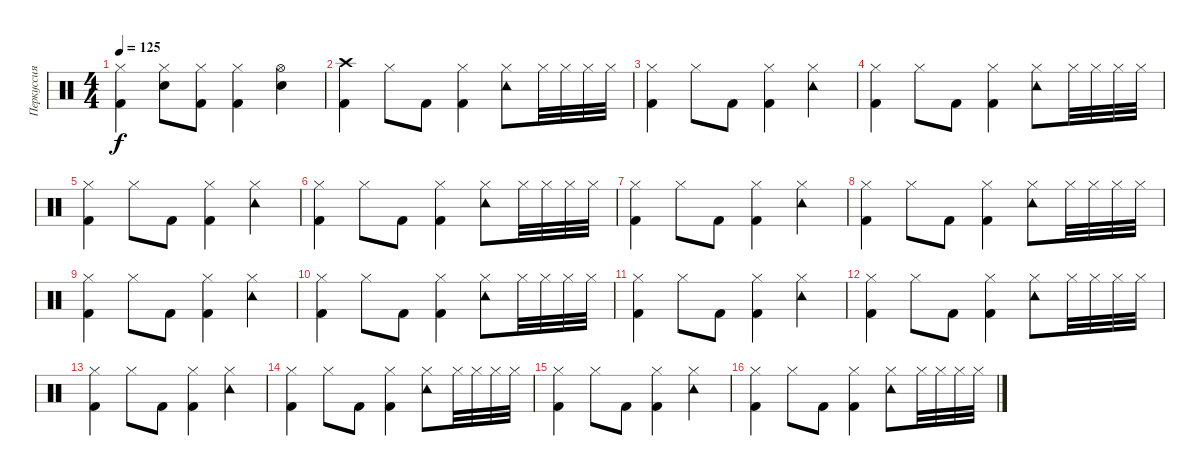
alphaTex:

\track ("Перкуссия" "Перкуссия") {instrument percussion}
\staff {score}
\articulation defaults
\ts (4 4)
\tempo 125
\clef neutral
\ks c
("Hi-Hat (closed)" "Kick (hit) 2").4{dy f} ("Hi-Hat (closed)" "Snare (hit) 2").8 ("Hi-Hat (closed)" "Kick (hit) 2").8 ("Hi-Hat (closed)" "Kick (hit) 2").4 ("Hi-Hat (open)" "Snare (hit) 2").4 |
("Crash high (hit)" "Kick (hit) 2").4 "Hi-Hat (closed)".8 "Kick (hit) 2".8 ("Hi-Hat (closed)" "Kick (hit) 2").4 ("Hi-Hat (closed)" "Tambourine (hit)").8 "Hi-Hat (closed)".32 "Hi-Hat (closed)".32 "Hi-Hat (closed)".32 "Hi-Hat (closed)".32 |
("Hi-Hat (closed)" "Kick (hit) 2").4 "Hi-Hat (closed)".8 "Kick (hit) 2".8 ("Hi-Hat (closed)" "Kick (hit) 2").4 ("Hi-Hat (closed)" "Tambourine (hit)").4 |
("Hi-Hat (closed)" "Kick (hit) 2").4 "Hi-Hat (closed)".8 "Kick (hit) 2".8 ("Hi-Hat (closed)" "Kick (hit) 2").4 ("Hi-Hat (closed)" "Tambourine (hit)").8 "Hi-Hat (closed)".32 "Hi-Hat (closed)".32 "Hi-Hat (closed)".32 "Hi-Hat (closed)".32 |
("Hi-Hat (closed)" "Kick (hit) 2").4 "Hi-Hat (closed)".8 "Kick (hit) 2".8 ("Hi-Hat (closed)" "Kick (hit) 2").4 ("Hi-Hat (closed)" "Tambourine (hit)").4 |
("Hi-Hat (closed)" "Kick (hit) 2").4 "Hi-Hat (closed)".8 "Kick (hit) 2".8 ("Hi-Hat (closed)" "Kick (hit) 2").4 ("Hi-Hat (closed)" "Tambourine (hit)").8 "Hi-Hat (closed)".32 "Hi-Hat (closed)".32 "Hi-Hat (closed)".32 "Hi-Hat (closed)".32 |
("Hi-Hat (closed)" "Kick (hit) 2").4 "Hi-Hat (closed)".8 "Kick (hit) 2".8 ("Hi-Hat (closed)" "Kick (hit) 2").4 ("Hi-Hat (closed)" "Tambourine (hit)").4 |
("Hi-Hat (closed)" "Kick (hit) 2").4 "Hi-Hat (closed)".8 "Kick (hit) 2".8 ("Hi-Hat (closed)" "Kick (hit) 2").4 ("Hi-Hat (closed)" "Tambourine (hit)").8 "Hi-Hat (closed)".32 "Hi-Hat (closed)".32 "Hi-Hat (closed)".32 "Hi-Hat (closed)".32 |
("Hi-Hat (closed)" "Kick (hit) 2").4 "Hi-Hat (closed)".8 "Kick (hit) 2".8 ("Hi-Hat (closed)" "Kick (hit) 2").4 ("Hi-Hat (closed)" "Tambourine (hit)").4 |
("Hi-Hat (closed)" "Kick (hit) 2").4 "Hi-Hat (closed)".8 "Kick (hit) 2".8 ("Hi-Hat (closed)" "Kick (hit) 2").4 ("Hi-Hat (closed)" "Tambourine (hit)").8 "Hi-Hat (closed)".32 "Hi-Hat (closed)".32 "Hi-Hat (closed)".32 "Hi-Hat (closed)".32 |
("Hi-Hat (closed)" "Kick (hit) 2").4 "Hi-Hat (closed)".8 "Kick (hit) 2".8 ("Hi-Hat (closed)" "Kick (hit) 2").4 ("Hi-Hat (closed)" "Tambourine (hit)").4 |
("Hi-Hat (closed)" "Kick (hit) 2").4 "Hi-Hat (closed)".8 "Kick (hit) 2".8 ("Hi-Hat (closed)" "Kick (hit) 2").4 ("Hi-Hat (closed)" "Tambourine (hit)").8 "Hi-Hat (closed)".32 "Hi-Hat (closed)".32 "Hi-Hat (closed)".32 "Hi-Hat (closed)".32 |
("Hi-Hat (closed)" "Kick (hit) 2").4 "Hi-Hat (closed)".8 "Kick (hit) 2".8 ("Hi-Hat (closed)" "Kick (hit) 2").4 ("Hi-Hat (closed)" "Tambourine (hit)").4 |
("Hi-Hat (closed)" "Kick (hit) 2").4 "Hi-Hat (closed)".8 "Kick (hit) 2".8 ("Hi-Hat (closed)" "Kick (hit) 2").4 ("Hi-Hat (closed)" "Tambourine (hit)").8 "Hi-Hat (closed)".32 "Hi-Hat (closed)".32 "Hi-Hat (closed)".32 "Hi-Hat (closed)".32 |
("Hi-Hat (closed)" "Kick (hit) 2").4 "Hi-Hat (closed)".8 "Kick (hit) 2".8 ("Hi-Hat (closed)" "Kick (hit) 2").4 ("Hi-Hat (closed)" "Tambourine (hit)").4 |
("Hi-Hat (closed)" "Kick (hit) 2").4 "Hi-Hat (closed)".8 "Kick (hit) 2".8 ("Hi-Hat (closed)" "Kick (hit) 2").4 ("Hi-Hat (closed)" "Tambourine (hit)").8 "Hi-Hat (closed)".32 "Hi-Hat (closed)".32 "Hi-Hat (closed)".32 "Hi-Hat (closed)".32
